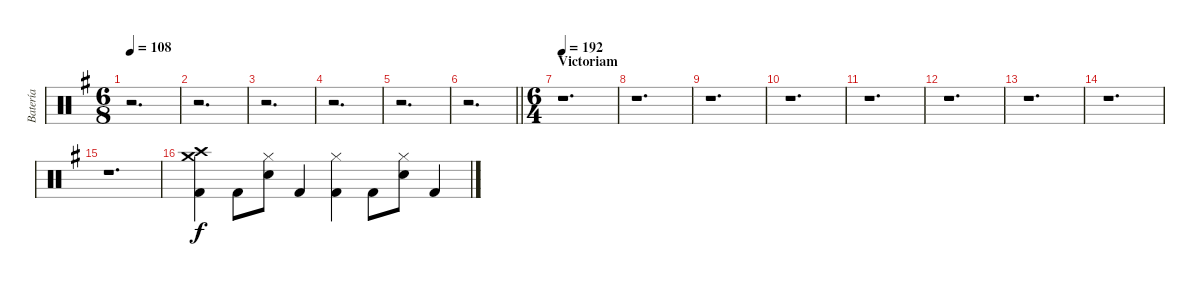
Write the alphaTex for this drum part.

\track ("Batería" "Batería") {instrument percussion}
\staff {score}
\articulation defaults
\ts (6 8)
\tempo 108
\clef neutral
\ks eminor
r.2{d dy f} |
r.2{d} |
r.2{d} |
r.2{d} |
r.2{d} |
\barLineRight lightlight
r.2{d} |
\ts (6 4)
\section ("" "Victoriam")
\tempo 192
r.1{d} |
r.1{d} |
r.1{d} |
r.1{d} |
r.1{d} |
r.1{d} |
r.1{d} |
r.1{d} |
r.1{d} |
("Crash medium (hit)" "Crash high (hit)" "Kick (hit) 2").4 "Kick (hit) 2".8 ("Hi-Hat (closed)" "Snare (hit) 2").8 "Kick (hit) 2".4 ("Hi-Hat (closed)" "Kick (hit) 2").4 "Kick (hit) 2".8 ("Hi-Hat (closed)" "Snare (hit) 2").8 "Kick (hit) 2".4
